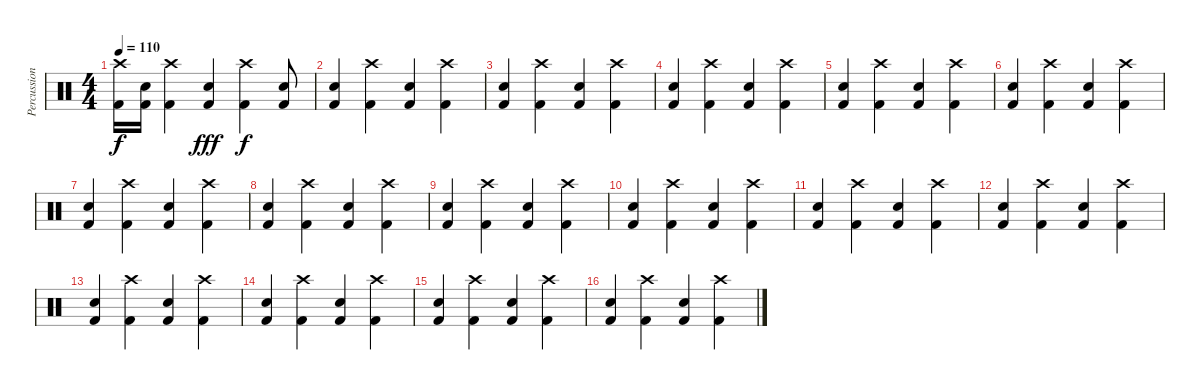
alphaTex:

\track ("Percussion" "Percussion") {instrument percussion}
\staff {score}
\articulation defaults
\ts (4 4)
\tempo 110
\clef neutral
\ks c
("Crash high (hit)" "Kick (hit) 2").16{dy f} ("Snare (hit) 2" "Kick (hit) 2").16 ("Crash high (hit)" "Kick (hit) 2").4 ("Snare (hit) 2" "Kick (hit) 2").4{dy fff} ("Crash high (hit)" "Kick (hit) 2").4{dy f} ("Snare (hit) 2" "Kick (hit) 2").8 |
("Snare (hit) 2" "Kick (hit) 2").4 ("Crash high (hit)" "Kick (hit) 2").4 ("Snare (hit) 2" "Kick (hit) 2").4 ("Crash high (hit)" "Kick (hit) 2").4 |
("Snare (hit) 2" "Kick (hit) 2").4 ("Crash high (hit)" "Kick (hit) 2").4 ("Snare (hit) 2" "Kick (hit) 2").4 ("Crash high (hit)" "Kick (hit) 2").4 |
("Snare (hit) 2" "Kick (hit) 2").4 ("Crash high (hit)" "Kick (hit) 2").4 ("Snare (hit) 2" "Kick (hit) 2").4 ("Crash high (hit)" "Kick (hit) 2").4 |
("Snare (hit) 2" "Kick (hit) 2").4 ("Crash high (hit)" "Kick (hit) 2").4 ("Snare (hit) 2" "Kick (hit) 2").4 ("Crash high (hit)" "Kick (hit) 2").4 |
("Snare (hit) 2" "Kick (hit) 2").4 ("Crash high (hit)" "Kick (hit) 2").4 ("Snare (hit) 2" "Kick (hit) 2").4 ("Crash high (hit)" "Kick (hit) 2").4 |
("Snare (hit) 2" "Kick (hit) 2").4 ("Crash high (hit)" "Kick (hit) 2").4 ("Snare (hit) 2" "Kick (hit) 2").4 ("Crash high (hit)" "Kick (hit) 2").4 |
("Snare (hit) 2" "Kick (hit) 2").4 ("Crash high (hit)" "Kick (hit) 2").4 ("Snare (hit) 2" "Kick (hit) 2").4 ("Crash high (hit)" "Kick (hit) 2").4 |
("Snare (hit) 2" "Kick (hit) 2").4 ("Crash high (hit)" "Kick (hit) 2").4 ("Snare (hit) 2" "Kick (hit) 2").4 ("Crash high (hit)" "Kick (hit) 2").4 |
("Snare (hit) 2" "Kick (hit) 2").4 ("Crash high (hit)" "Kick (hit) 2").4 ("Snare (hit) 2" "Kick (hit) 2").4 ("Crash high (hit)" "Kick (hit) 2").4 |
("Snare (hit) 2" "Kick (hit) 2").4 ("Crash high (hit)" "Kick (hit) 2").4 ("Snare (hit) 2" "Kick (hit) 2").4 ("Crash high (hit)" "Kick (hit) 2").4 |
("Snare (hit) 2" "Kick (hit) 2").4 ("Crash high (hit)" "Kick (hit) 2").4 ("Snare (hit) 2" "Kick (hit) 2").4 ("Crash high (hit)" "Kick (hit) 2").4 |
("Snare (hit) 2" "Kick (hit) 2").4 ("Crash high (hit)" "Kick (hit) 2").4 ("Snare (hit) 2" "Kick (hit) 2").4 ("Crash high (hit)" "Kick (hit) 2").4 |
("Snare (hit) 2" "Kick (hit) 2").4 ("Crash high (hit)" "Kick (hit) 2").4 ("Snare (hit) 2" "Kick (hit) 2").4 ("Crash high (hit)" "Kick (hit) 2").4 |
("Snare (hit) 2" "Kick (hit) 2").4 ("Crash high (hit)" "Kick (hit) 2").4 ("Snare (hit) 2" "Kick (hit) 2").4 ("Crash high (hit)" "Kick (hit) 2").4 |
("Snare (hit) 2" "Kick (hit) 2").4 ("Crash high (hit)" "Kick (hit) 2").4 ("Snare (hit) 2" "Kick (hit) 2").4 ("Crash high (hit)" "Kick (hit) 2").4
